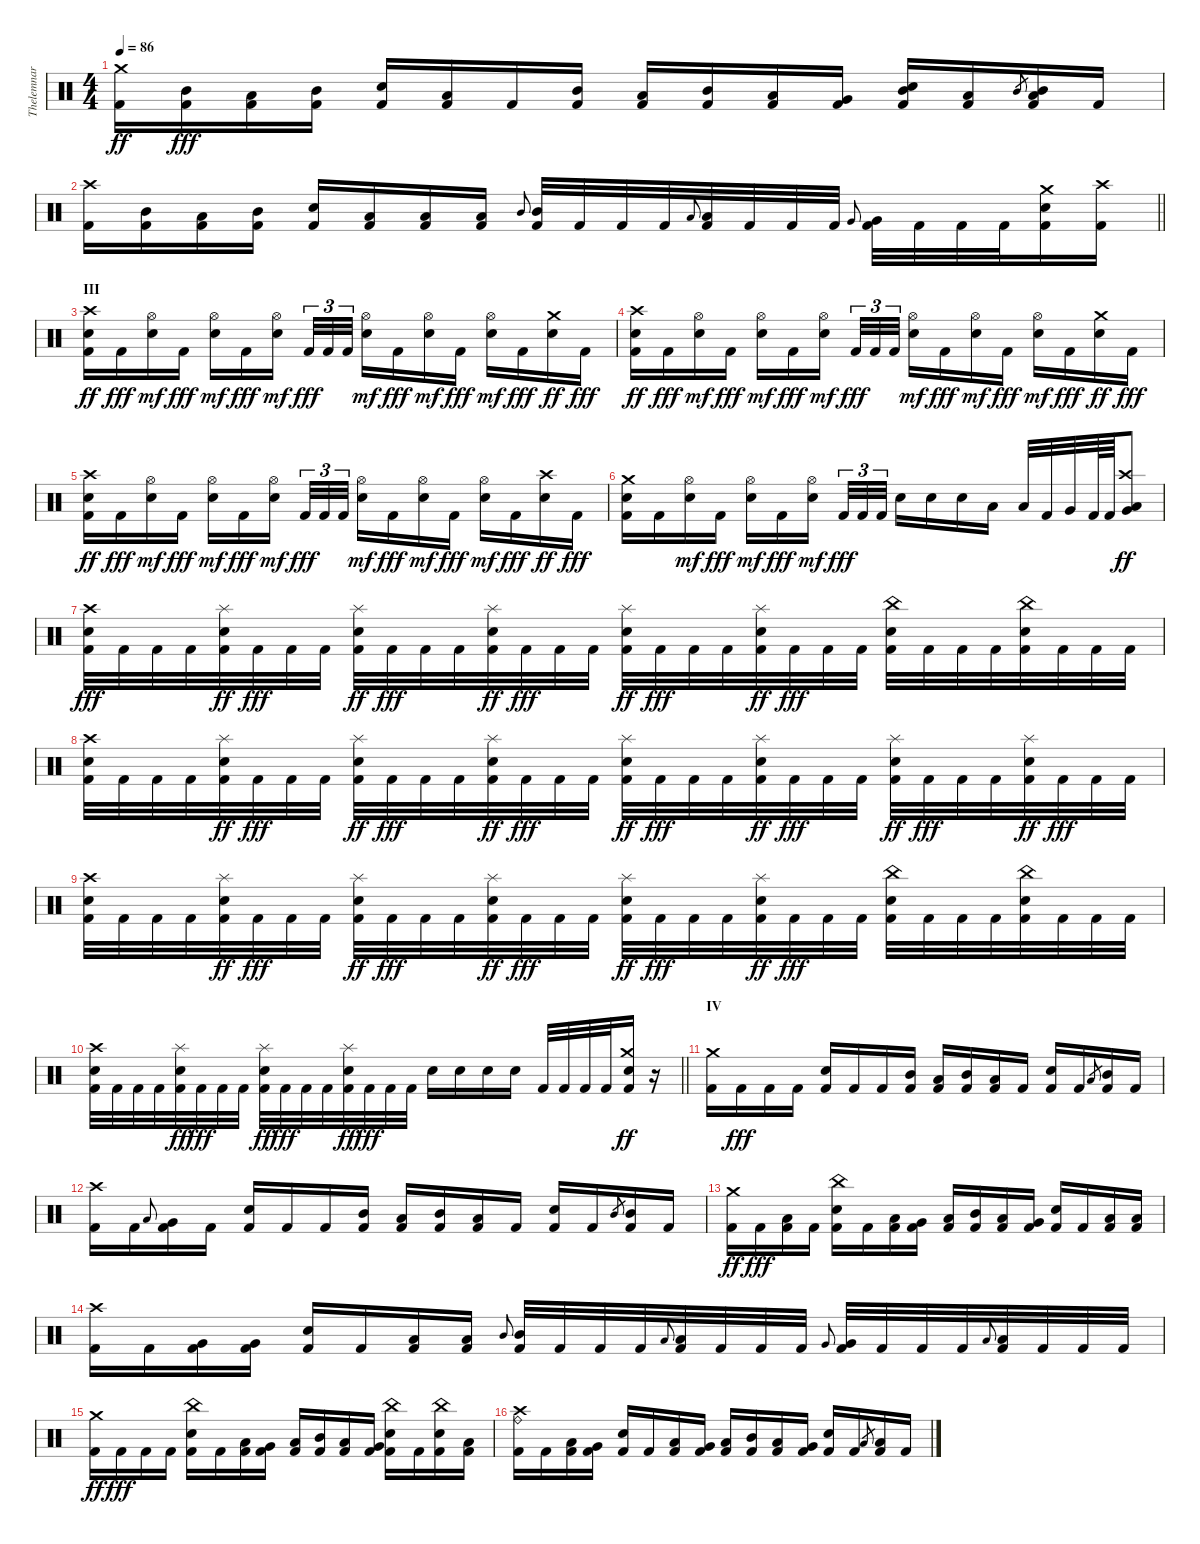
\track ("Thelemnar (Drums)" "Thelemnar ") {instrument percussion}
\staff {score}
\articulation defaults
\ts (4 4)
\tempo 86
\clef neutral
\ks c
("Kick (hit) 2" "Crash medium (hit)").16{dy ff} ("Kick (hit) 2" "Mid Tom (hit)").16{dy fff} ("Kick (hit) 2" "Low Tom (hit)").16 ("Kick (hit) 2" "Mid Tom (hit)").16 ("Kick (hit) 2" "Electric Snare (hit)").16 ("Kick (hit) 2" "Low Tom (hit)").16 "Kick (hit) 2".16 ("Kick (hit) 2" "Mid Tom (hit)").16 ("Kick (hit) 2" "Low Tom (hit)").16 ("Kick (hit) 2" "Mid Tom (hit)").16 ("Kick (hit) 2" "Low Tom (hit)").16 ("Kick (hit) 2" "Very Low Tom (hit)").16 ("Kick (hit) 2" "Mid Tom (hit)" "Electric Snare (hit)").16 ("Kick (hit) 2" "Low Tom (hit)").16 "Mid Tom (hit)".8{gr} ("Kick (hit) 2" "Mid Tom (hit)" "Low Tom (hit)").16 "Kick (hit) 2".16 |
\barLineRight lightlight
("Kick (hit) 2" "Crash high (hit)").16 ("Kick (hit) 2" "Mid Tom (hit)").16 ("Kick (hit) 2" "Low Tom (hit)").16 ("Kick (hit) 2" "Mid Tom (hit)").16 ("Kick (hit) 2" "Electric Snare (hit)").16 ("Kick (hit) 2" "Low Tom (hit)").16 ("Kick (hit) 2" "Low Tom (hit)").16 ("Kick (hit) 2" "Low Tom (hit)").16 "Mid Tom (hit)".8{gr onbeat} ("Kick (hit) 2" "Mid Tom (hit)").32 "Kick (hit) 2".32 "Kick (hit) 2".32 "Kick (hit) 2".32 "Low Tom (hit)".8{gr onbeat} ("Kick (hit) 2" "Low Tom (hit)").32 "Kick (hit) 2".32 "Kick (hit) 2".32 "Kick (hit) 2".32 "Very Low Tom (hit)".8{gr onbeat} ("Kick (hit) 2" "Very Low Tom (hit)").32 "Kick (hit) 2".32 "Kick (hit) 2".32 "Kick (hit) 2".32 ("Kick (hit) 2" "Electric Snare (hit)" "Crash medium (hit)").16 ("Kick (hit) 2" "Crash high (hit)").16 |
\section ("" "III")
("Kick (hit) 2" "Electric Snare (hit)" "Crash high (hit)").16{dy ff} "Kick (hit) 2".16{dy fff} ("Electric Snare (hit)" "Hi-Hat (open)").16{dy mf} "Kick (hit) 2".16{dy fff} ("Electric Snare (hit)" "Hi-Hat (open)").16{dy mf} "Kick (hit) 2".16{dy fff} ("Electric Snare (hit)" "Hi-Hat (open)").16{dy mf beam splitsecondary} "Kick (hit) 2".32{tu (3 2) dy fff} "Kick (hit) 2".32{tu (3 2)} "Kick (hit) 2".32{tu (3 2)} ("Electric Snare (hit)" "Hi-Hat (open)").16{dy mf} "Kick (hit) 2".16{dy fff} ("Electric Snare (hit)" "Hi-Hat (open)").16{dy mf} "Kick (hit) 2".16{dy fff} ("Electric Snare (hit)" "Hi-Hat (open)").16{dy mf} "Kick (hit) 2".16{dy fff} ("Electric Snare (hit)" "Crash medium (hit)").16{dy ff} "Kick (hit) 2".16{dy fff} |
("Kick (hit) 2" "Electric Snare (hit)" "Crash high (hit)").16{dy ff} "Kick (hit) 2".16{dy fff} ("Electric Snare (hit)" "Hi-Hat (open)").16{dy mf} "Kick (hit) 2".16{dy fff} ("Electric Snare (hit)" "Hi-Hat (open)").16{dy mf} "Kick (hit) 2".16{dy fff} ("Electric Snare (hit)" "Hi-Hat (open)").16{dy mf beam splitsecondary} "Kick (hit) 2".32{tu (3 2) dy fff} "Kick (hit) 2".32{tu (3 2)} "Kick (hit) 2".32{tu (3 2)} ("Electric Snare (hit)" "Hi-Hat (open)").16{dy mf} "Kick (hit) 2".16{dy fff} ("Electric Snare (hit)" "Hi-Hat (open)").16{dy mf} "Kick (hit) 2".16{dy fff} ("Electric Snare (hit)" "Hi-Hat (open)").16{dy mf} "Kick (hit) 2".16{dy fff} ("Electric Snare (hit)" "Crash medium (hit)").16{dy ff} "Kick (hit) 2".16{dy fff} |
("Kick (hit) 2" "Electric Snare (hit)" "Crash high (hit)").16{dy ff} "Kick (hit) 2".16{dy fff} ("Electric Snare (hit)" "Hi-Hat (open)").16{dy mf} "Kick (hit) 2".16{dy fff} ("Electric Snare (hit)" "Hi-Hat (open)").16{dy mf} "Kick (hit) 2".16{dy fff} ("Electric Snare (hit)" "Hi-Hat (open)").16{dy mf beam splitsecondary} "Kick (hit) 2".32{tu (3 2) dy fff} "Kick (hit) 2".32{tu (3 2)} "Kick (hit) 2".32{tu (3 2)} ("Electric Snare (hit)" "Hi-Hat (open)").16{dy mf} "Kick (hit) 2".16{dy fff} ("Electric Snare (hit)" "Hi-Hat (open)").16{dy mf} "Kick (hit) 2".16{dy fff} ("Electric Snare (hit)" "Hi-Hat (open)").16{dy mf} "Kick (hit) 2".16{dy fff} ("Electric Snare (hit)" "Crash high (hit)").16{dy ff} "Kick (hit) 2".16{dy fff} |
("Kick (hit) 2" "Electric Snare (hit)" "Crash medium (hit)").16 "Kick (hit) 2".16 ("Electric Snare (hit)" "Hi-Hat (open)").16{dy mf} "Kick (hit) 2".16{dy fff} ("Electric Snare (hit)" "Hi-Hat (open)").16{dy mf} "Kick (hit) 2".16{dy fff} ("Electric Snare (hit)" "Hi-Hat (open)").16{dy mf beam splitsecondary} "Kick (hit) 2".32{tu (3 2) dy fff} "Kick (hit) 2".32{tu (3 2)} "Kick (hit) 2".32{tu (3 2)} "Electric Snare (hit)".16 "Electric Snare (hit)".16 "Electric Snare (hit)".16 "Low Tom (hit)".16 "Low Tom (hit)".32 "Kick (hit) 2".32 "Very Low Tom (hit)".32 "Kick (hit) 2".64 "Kick (hit) 2".64 ("Low Floor Tom (hit)" "Very Low Tom (hit)" "Crash high (hit)").8{dy ff} |
("Kick (hit) 2" "Electric Snare (hit)" "Crash high (hit)").32{dy fff} "Kick (hit) 2".32 "Kick (hit) 2".32 "Kick (hit) 2".32 ("Kick (hit) 2" "Electric Snare (hit)" "Splash (hit)").32{dy ff} "Kick (hit) 2".32{dy fff} "Kick (hit) 2".32 "Kick (hit) 2".32 ("Kick (hit) 2" "Electric Snare (hit)" "Splash (hit)").32{dy ff} "Kick (hit) 2".32{dy fff} "Kick (hit) 2".32 "Kick (hit) 2".32 ("Kick (hit) 2" "Electric Snare (hit)" "Splash (hit)").32{dy ff} "Kick (hit) 2".32{dy fff} "Kick (hit) 2".32 "Kick (hit) 2".32 ("Kick (hit) 2" "Electric Snare (hit)" "Splash (hit)").32{dy ff} "Kick (hit) 2".32{dy fff} "Kick (hit) 2".32 "Kick (hit) 2".32 ("Kick (hit) 2" "Electric Snare (hit)" "Splash (hit)").32{dy ff} "Kick (hit) 2".32{dy fff} "Kick (hit) 2".32 "Kick (hit) 2".32 ("Kick (hit) 2" "Electric Snare (hit)" "China (hit)").32 "Kick (hit) 2".32 "Kick (hit) 2".32 "Kick (hit) 2".32 ("Kick (hit) 2" "Electric Snare (hit)" "China (hit)").32 "Kick (hit) 2".32 "Kick (hit) 2".32 "Kick (hit) 2".32 |
("Kick (hit) 2" "Electric Snare (hit)" "Crash high (hit)").32 "Kick (hit) 2".32 "Kick (hit) 2".32 "Kick (hit) 2".32 ("Kick (hit) 2" "Electric Snare (hit)" "Splash (hit)").32{dy ff} "Kick (hit) 2".32{dy fff} "Kick (hit) 2".32 "Kick (hit) 2".32 ("Kick (hit) 2" "Electric Snare (hit)" "Splash (hit)").32{dy ff} "Kick (hit) 2".32{dy fff} "Kick (hit) 2".32 "Kick (hit) 2".32 ("Kick (hit) 2" "Electric Snare (hit)" "Splash (hit)").32{dy ff} "Kick (hit) 2".32{dy fff} "Kick (hit) 2".32 "Kick (hit) 2".32 ("Kick (hit) 2" "Electric Snare (hit)" "Splash (hit)").32{dy ff} "Kick (hit) 2".32{dy fff} "Kick (hit) 2".32 "Kick (hit) 2".32 ("Kick (hit) 2" "Electric Snare (hit)" "Splash (hit)").32{dy ff} "Kick (hit) 2".32{dy fff} "Kick (hit) 2".32 "Kick (hit) 2".32 ("Kick (hit) 2" "Electric Snare (hit)" "Splash (hit)").32{dy ff} "Kick (hit) 2".32{dy fff} "Kick (hit) 2".32 "Kick (hit) 2".32 ("Kick (hit) 2" "Electric Snare (hit)" "Splash (hit)").32{dy ff} "Kick (hit) 2".32{dy fff} "Kick (hit) 2".32 "Kick (hit) 2".32 |
("Kick (hit) 2" "Electric Snare (hit)" "Crash high (hit)").32 "Kick (hit) 2".32 "Kick (hit) 2".32 "Kick (hit) 2".32 ("Kick (hit) 2" "Electric Snare (hit)" "Splash (hit)").32{dy ff} "Kick (hit) 2".32{dy fff} "Kick (hit) 2".32 "Kick (hit) 2".32 ("Kick (hit) 2" "Electric Snare (hit)" "Splash (hit)").32{dy ff} "Kick (hit) 2".32{dy fff} "Kick (hit) 2".32 "Kick (hit) 2".32 ("Kick (hit) 2" "Electric Snare (hit)" "Splash (hit)").32{dy ff} "Kick (hit) 2".32{dy fff} "Kick (hit) 2".32 "Kick (hit) 2".32 ("Kick (hit) 2" "Electric Snare (hit)" "Splash (hit)").32{dy ff} "Kick (hit) 2".32{dy fff} "Kick (hit) 2".32 "Kick (hit) 2".32 ("Kick (hit) 2" "Electric Snare (hit)" "Splash (hit)").32{dy ff} "Kick (hit) 2".32{dy fff} "Kick (hit) 2".32 "Kick (hit) 2".32 ("Kick (hit) 2" "Electric Snare (hit)" "China (hit)").32 "Kick (hit) 2".32 "Kick (hit) 2".32 "Kick (hit) 2".32 ("Kick (hit) 2" "Electric Snare (hit)" "China (hit)").32 "Kick (hit) 2".32 "Kick (hit) 2".32 "Kick (hit) 2".32 |
\barLineRight lightlight
("Kick (hit) 2" "Electric Snare (hit)" "Crash high (hit)").32 "Kick (hit) 2".32 "Kick (hit) 2".32 "Kick (hit) 2".32 ("Kick (hit) 2" "Electric Snare (hit)" "Splash (hit)").32{dy ff} "Kick (hit) 2".32{dy fff} "Kick (hit) 2".32 "Kick (hit) 2".32 ("Kick (hit) 2" "Electric Snare (hit)" "Splash (hit)").32{dy ff} "Kick (hit) 2".32{dy fff} "Kick (hit) 2".32 "Kick (hit) 2".32 ("Kick (hit) 2" "Electric Snare (hit)" "Splash (hit)").32{dy ff} "Kick (hit) 2".32{dy fff} "Kick (hit) 2".32 "Kick (hit) 2".32 "Electric Snare (hit)".16 "Electric Snare (hit)".16 "Electric Snare (hit)".16 "Electric Snare (hit)".16 "Kick (hit) 2".32 "Kick (hit) 2".32 "Kick (hit) 2".32 "Kick (hit) 2".32 ("Kick (hit) 2" "Electric Snare (hit)" "Crash medium (hit)").16{dy ff} r.16 |
\section ("" "IV")
("Kick (hit) 2" "Crash medium (hit)").16 "Kick (hit) 2".16{dy fff} "Kick (hit) 2".16 "Kick (hit) 2".16 ("Kick (hit) 2" "Electric Snare (hit)").16 "Kick (hit) 2".16 "Kick (hit) 2".16 ("Kick (hit) 2" "Mid Tom (hit)").16 ("Kick (hit) 2" "Low Tom (hit)").16 ("Kick (hit) 2" "Mid Tom (hit)").16 ("Kick (hit) 2" "Low Tom (hit)").16 "Kick (hit) 2".16 ("Kick (hit) 2" "Electric Snare (hit)").16 "Kick (hit) 2".16 "Low Tom (hit)".8{gr} ("Kick (hit) 2" "Mid Tom (hit)").16 "Kick (hit) 2".16 |
("Kick (hit) 2" "Crash high (hit)").16 "Kick (hit) 2".16 "Low Tom (hit)".8{gr onbeat} ("Kick (hit) 2" "Very Low Tom (hit)").16 "Kick (hit) 2".16 ("Kick (hit) 2" "Electric Snare (hit)").16 "Kick (hit) 2".16 "Kick (hit) 2".16 ("Kick (hit) 2" "Mid Tom (hit)").16 ("Kick (hit) 2" "Low Tom (hit)").16 ("Kick (hit) 2" "Mid Tom (hit)").16 ("Kick (hit) 2" "Low Tom (hit)").16 "Kick (hit) 2".16 ("Kick (hit) 2" "Electric Snare (hit)").16 "Kick (hit) 2".16 "Mid Tom (hit)".8{gr} ("Kick (hit) 2" "Mid Tom (hit)").16 "Kick (hit) 2".16 |
("Kick (hit) 2" "Crash medium (hit)").16{dy ff} "Kick (hit) 2".16{dy fff} ("Kick (hit) 2" "Low Floor Tom (hit)").16 "Kick (hit) 2".16 ("Kick (hit) 2" "Electric Snare (hit)" "China (hit)").16 "Kick (hit) 2".16 ("Kick (hit) 2" "Low Tom (hit)").16 ("Kick (hit) 2" "Very Low Tom (hit)").16 ("Kick (hit) 2" "Low Tom (hit)").16 ("Kick (hit) 2" "Mid Tom (hit)").16 ("Kick (hit) 2" "Low Tom (hit)").16 ("Kick (hit) 2" "Very Low Tom (hit)").16 ("Kick (hit) 2" "Electric Snare (hit)").16 "Kick (hit) 2".16 ("Kick (hit) 2" "Low Tom (hit)").16 ("Kick (hit) 2" "Low Tom (hit)").16 |
("Kick (hit) 2" "Crash high (hit)").16 "Kick (hit) 2".16 ("Kick (hit) 2" "Very Low Tom (hit)").16 ("Kick (hit) 2" "Very Low Tom (hit)").16 ("Kick (hit) 2" "Electric Snare (hit)").16 "Kick (hit) 2".16 ("Kick (hit) 2" "Low Floor Tom (hit)").16 ("Kick (hit) 2" "Low Floor Tom (hit)").16 "Mid Tom (hit)".8{gr onbeat} ("Kick (hit) 2" "Mid Tom (hit)").32 "Kick (hit) 2".32 "Kick (hit) 2".32 "Kick (hit) 2".32 "Low Tom (hit)".8{gr onbeat} ("Kick (hit) 2" "Low Tom (hit)").32 "Kick (hit) 2".32 "Kick (hit) 2".32 "Kick (hit) 2".32 "Very Low Tom (hit)".8{gr onbeat} ("Kick (hit) 2" "Very Low Tom (hit)").32 "Kick (hit) 2".32 "Kick (hit) 2".32 "Kick (hit) 2".32 "Low Floor Tom (hit)".8{gr onbeat} ("Kick (hit) 2" "Low Floor Tom (hit)").32 "Kick (hit) 2".32 "Kick (hit) 2".32 "Kick (hit) 2".32 |
("Kick (hit) 2" "Crash medium (hit)").16{dy ff} "Kick (hit) 2".16{dy fff} "Kick (hit) 2".16 "Kick (hit) 2".16 ("Kick (hit) 2" "Electric Snare (hit)" "China (hit)").16 "Kick (hit) 2".16 ("Kick (hit) 2" "Low Tom (hit)").16 ("Kick (hit) 2" "Very Low Tom (hit)").16 ("Kick (hit) 2" "Low Tom (hit)").16 ("Kick (hit) 2" "Mid Tom (hit)").16 ("Kick (hit) 2" "Low Tom (hit)").16 ("Kick (hit) 2" "Very Low Tom (hit)").16 ("Kick (hit) 2" "Electric Snare (hit)" "China (hit)").16 "Kick (hit) 2".16 ("Kick (hit) 2" "Electric Snare (hit)" "China (hit)").16 ("Kick (hit) 2" "Low Tom (hit)").16 |
("Kick (hit) 2" "Ride (bell)" "Crash high (hit)").16 "Kick (hit) 2".16 ("Kick (hit) 2" "Low Tom (hit)").16 ("Kick (hit) 2" "Very Low Tom (hit)").16 ("Kick (hit) 2" "Electric Snare (hit)").16 "Kick (hit) 2".16 ("Kick (hit) 2" "Low Tom (hit)").16 ("Kick (hit) 2" "Very Low Tom (hit)").16 ("Kick (hit) 2" "Low Tom (hit)").16 ("Kick (hit) 2" "Mid Tom (hit)").16 ("Kick (hit) 2" "Low Tom (hit)").16 ("Kick (hit) 2" "Very Low Tom (hit)").16 ("Kick (hit) 2" "Electric Snare (hit)").16 "Kick (hit) 2".16 "Low Tom (hit)".8{gr} ("Kick (hit) 2" "Low Tom (hit)").16 "Kick (hit) 2".16
